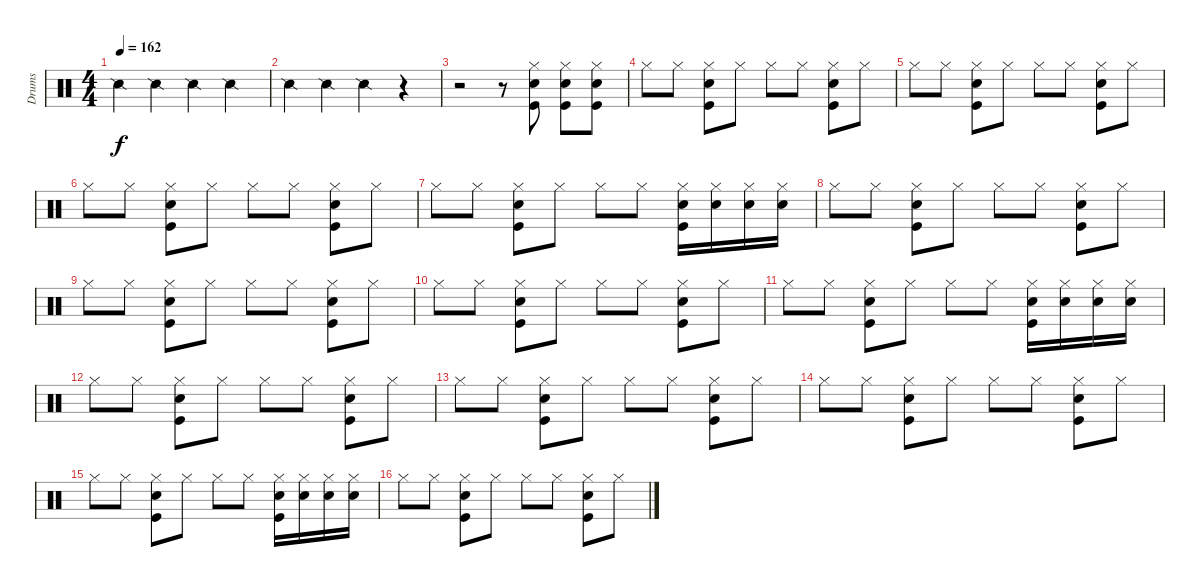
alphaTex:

\track ("Drums" "Drums") {instrument percussion}
\staff {score}
\articulation defaults
\ts (4 4)
\tempo 162
\clef neutral
\ks c "Snare (side stick) 2".4{dy f} "Snare (side stick) 2".4 "Snare (side stick) 2".4 "Snare (side stick) 2".4
|
"Snare (side stick) 2".4 "Snare (side stick) 2".4 "Snare (side stick) 2".4 r.4 |
r.2 r.8 ("Snare (hit) 2" "Kick (hit)" "Hi-Hat (closed)").8 ("Kick (hit)" "Snare (hit) 2" "Hi-Hat (closed)").8 ("Kick (hit)" "Snare (hit) 2" "Hi-Hat (closed)").8 |
"Hi-Hat (closed)".8 "Hi-Hat (closed)".8 ("Snare (hit) 2" "Kick (hit)" "Hi-Hat (closed)").8 "Hi-Hat (closed)".8 "Hi-Hat (closed)".8 "Hi-Hat (closed)".8 ("Snare (hit) 2" "Kick (hit)" "Hi-Hat (closed)").8 "Hi-Hat (closed)".8 |
"Hi-Hat (closed)".8 "Hi-Hat (closed)".8 ("Snare (hit) 2" "Kick (hit)" "Hi-Hat (closed)").8 "Hi-Hat (closed)".8 "Hi-Hat (closed)".8 "Hi-Hat (closed)".8 ("Snare (hit) 2" "Kick (hit)" "Hi-Hat (closed)").8 "Hi-Hat (closed)".8 |
"Hi-Hat (closed)".8 "Hi-Hat (closed)".8 ("Snare (hit) 2" "Kick (hit)" "Hi-Hat (closed)").8 "Hi-Hat (closed)".8 "Hi-Hat (closed)".8 "Hi-Hat (closed)".8 ("Snare (hit) 2" "Kick (hit)" "Hi-Hat (closed)").8 "Hi-Hat (closed)".8 |
"Hi-Hat (closed)".8 "Hi-Hat (closed)".8 ("Snare (hit) 2" "Kick (hit)" "Hi-Hat (closed)").8 "Hi-Hat (closed)".8 "Hi-Hat (closed)".8 "Hi-Hat (closed)".8 ("Snare (hit) 2" "Kick (hit)" "Hi-Hat (closed)").16 ("Hi-Hat (closed)" "Snare (hit) 2").16 ("Hi-Hat (closed)" "Snare (hit) 2").16 ("Snare (hit) 2" "Hi-Hat (closed)").16 |
"Hi-Hat (closed)".8 "Hi-Hat (closed)".8 ("Snare (hit) 2" "Kick (hit)" "Hi-Hat (closed)").8 "Hi-Hat (closed)".8 "Hi-Hat (closed)".8 "Hi-Hat (closed)".8 ("Snare (hit) 2" "Kick (hit)" "Hi-Hat (closed)").8 "Hi-Hat (closed)".8 |
"Hi-Hat (closed)".8 "Hi-Hat (closed)".8 ("Snare (hit) 2" "Kick (hit)" "Hi-Hat (closed)").8 "Hi-Hat (closed)".8 "Hi-Hat (closed)".8 "Hi-Hat (closed)".8 ("Snare (hit) 2" "Kick (hit)" "Hi-Hat (closed)").8 "Hi-Hat (closed)".8 |
"Hi-Hat (closed)".8 "Hi-Hat (closed)".8 ("Snare (hit) 2" "Kick (hit)" "Hi-Hat (closed)").8 "Hi-Hat (closed)".8 "Hi-Hat (closed)".8 "Hi-Hat (closed)".8 ("Snare (hit) 2" "Kick (hit)" "Hi-Hat (closed)").8 "Hi-Hat (closed)".8 |
"Hi-Hat (closed)".8 "Hi-Hat (closed)".8 ("Snare (hit) 2" "Kick (hit)" "Hi-Hat (closed)").8 "Hi-Hat (closed)".8 "Hi-Hat (closed)".8 "Hi-Hat (closed)".8 ("Snare (hit) 2" "Kick (hit)" "Hi-Hat (closed)").16 ("Hi-Hat (closed)" "Snare (hit) 2").16 ("Hi-Hat (closed)" "Snare (hit) 2").16 ("Snare (hit) 2" "Hi-Hat (closed)").16 |
"Hi-Hat (closed)".8 "Hi-Hat (closed)".8 ("Snare (hit) 2" "Kick (hit)" "Hi-Hat (closed)").8 "Hi-Hat (closed)".8 "Hi-Hat (closed)".8 "Hi-Hat (closed)".8 ("Snare (hit) 2" "Kick (hit)" "Hi-Hat (closed)").8 "Hi-Hat (closed)".8 |
"Hi-Hat (closed)".8 "Hi-Hat (closed)".8 ("Snare (hit) 2" "Kick (hit)" "Hi-Hat (closed)").8 "Hi-Hat (closed)".8 "Hi-Hat (closed)".8 "Hi-Hat (closed)".8 ("Snare (hit) 2" "Kick (hit)" "Hi-Hat (closed)").8 "Hi-Hat (closed)".8 |
"Hi-Hat (closed)".8 "Hi-Hat (closed)".8 ("Snare (hit) 2" "Kick (hit)" "Hi-Hat (closed)").8 "Hi-Hat (closed)".8 "Hi-Hat (closed)".8 "Hi-Hat (closed)".8 ("Snare (hit) 2" "Kick (hit)" "Hi-Hat (closed)").8 "Hi-Hat (closed)".8 |
"Hi-Hat (closed)".8 "Hi-Hat (closed)".8 ("Snare (hit) 2" "Kick (hit)" "Hi-Hat (closed)").8 "Hi-Hat (closed)".8 "Hi-Hat (closed)".8 "Hi-Hat (closed)".8 ("Snare (hit) 2" "Kick (hit)" "Hi-Hat (closed)").16 ("Hi-Hat (closed)" "Snare (hit) 2").16 ("Hi-Hat (closed)" "Snare (hit) 2").16 ("Snare (hit) 2" "Hi-Hat (closed)").16 |
"Hi-Hat (closed)".8 "Hi-Hat (closed)".8 ("Snare (hit) 2" "Kick (hit)" "Hi-Hat (closed)").8 "Hi-Hat (closed)".8 "Hi-Hat (closed)".8 "Hi-Hat (closed)".8 ("Snare (hit) 2" "Kick (hit)" "Hi-Hat (closed)").8 "Hi-Hat (closed)".8
